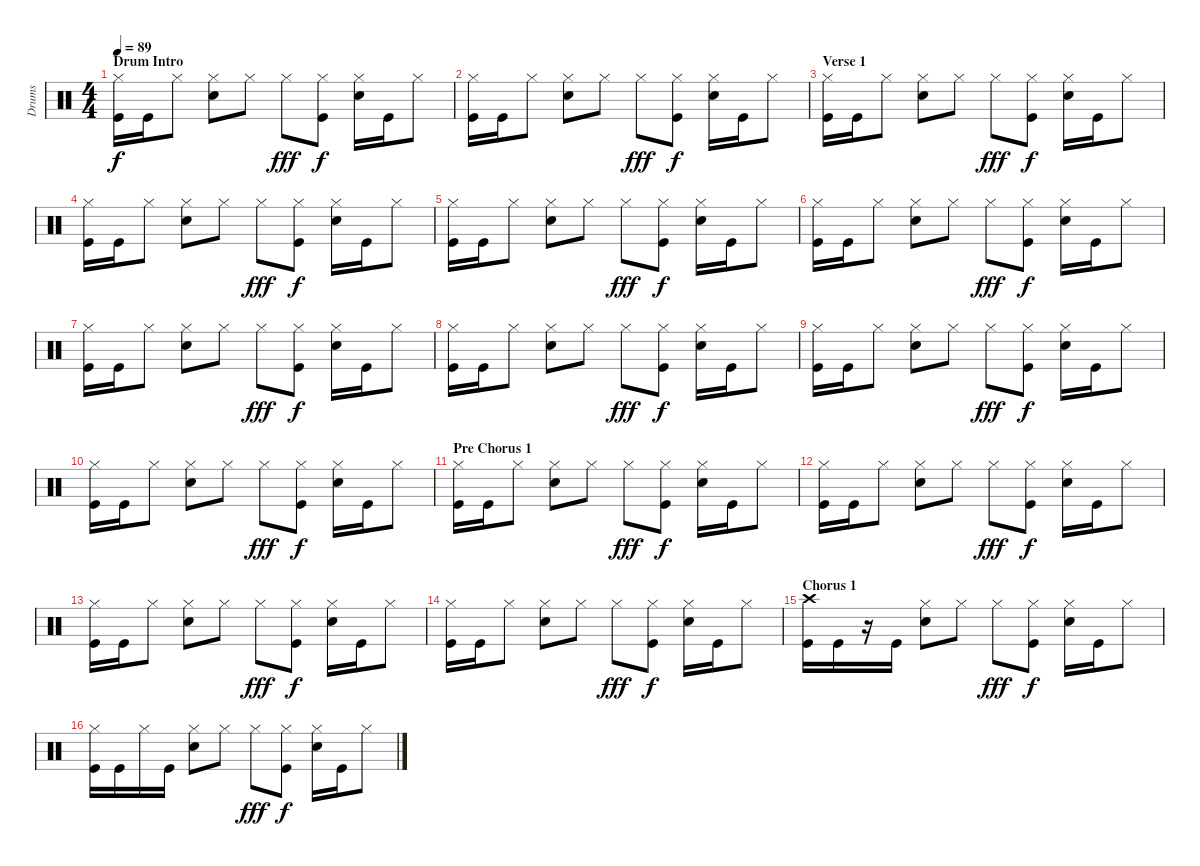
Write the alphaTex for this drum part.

\track ("Drums" "Drums") {instrument percussion}
\staff {score}
\articulation defaults
\ts (4 4)
\section ("" "Drum Intro")
\tempo 89
\clef neutral
\ks c
("Hi-Hat (closed)" "Kick (hit)").16{dy f} "Kick (hit)".16 "Hi-Hat (closed)".8 ("Hi-Hat (closed)" "Snare (hit) 2").8 "Hi-Hat (closed)".8 "Hi-Hat (closed)".8{dy fff} ("Hi-Hat (closed)" "Kick (hit)").8{dy f} ("Hi-Hat (closed)" "Snare (hit) 2").16 "Kick (hit)".16 "Hi-Hat (closed)".8 |
("Hi-Hat (closed)" "Kick (hit)").16 "Kick (hit)".16 "Hi-Hat (closed)".8 ("Hi-Hat (closed)" "Snare (hit) 2").8 "Hi-Hat (closed)".8 "Hi-Hat (closed)".8{dy fff} ("Hi-Hat (closed)" "Kick (hit)").8{dy f} ("Hi-Hat (closed)" "Snare (hit) 2").16 "Kick (hit)".16 "Hi-Hat (closed)".8 |
\section ("" "Verse 1")
("Hi-Hat (closed)" "Kick (hit)").16 "Kick (hit)".16 "Hi-Hat (closed)".8 ("Hi-Hat (closed)" "Snare (hit) 2").8 "Hi-Hat (closed)".8 "Hi-Hat (closed)".8{dy fff} ("Hi-Hat (closed)" "Kick (hit)").8{dy f} ("Hi-Hat (closed)" "Snare (hit) 2").16 "Kick (hit)".16 "Hi-Hat (closed)".8 |
("Hi-Hat (closed)" "Kick (hit)").16 "Kick (hit)".16 "Hi-Hat (closed)".8 ("Hi-Hat (closed)" "Snare (hit) 2").8 "Hi-Hat (closed)".8 "Hi-Hat (closed)".8{dy fff} ("Hi-Hat (closed)" "Kick (hit)").8{dy f} ("Hi-Hat (closed)" "Snare (hit) 2").16 "Kick (hit)".16 "Hi-Hat (closed)".8 |
("Hi-Hat (closed)" "Kick (hit)").16 "Kick (hit)".16 "Hi-Hat (closed)".8 ("Hi-Hat (closed)" "Snare (hit) 2").8 "Hi-Hat (closed)".8 "Hi-Hat (closed)".8{dy fff} ("Hi-Hat (closed)" "Kick (hit)").8{dy f} ("Hi-Hat (closed)" "Snare (hit) 2").16 "Kick (hit)".16 "Hi-Hat (closed)".8 |
("Hi-Hat (closed)" "Kick (hit)").16 "Kick (hit)".16 "Hi-Hat (closed)".8 ("Hi-Hat (closed)" "Snare (hit) 2").8 "Hi-Hat (closed)".8 "Hi-Hat (closed)".8{dy fff} ("Hi-Hat (closed)" "Kick (hit)").8{dy f} ("Hi-Hat (closed)" "Snare (hit) 2").16 "Kick (hit)".16 "Hi-Hat (closed)".8 |
("Hi-Hat (closed)" "Kick (hit)").16 "Kick (hit)".16 "Hi-Hat (closed)".8 ("Hi-Hat (closed)" "Snare (hit) 2").8 "Hi-Hat (closed)".8 "Hi-Hat (closed)".8{dy fff} ("Hi-Hat (closed)" "Kick (hit)").8{dy f} ("Hi-Hat (closed)" "Snare (hit) 2").16 "Kick (hit)".16 "Hi-Hat (closed)".8 |
("Hi-Hat (closed)" "Kick (hit)").16 "Kick (hit)".16 "Hi-Hat (closed)".8 ("Hi-Hat (closed)" "Snare (hit) 2").8 "Hi-Hat (closed)".8 "Hi-Hat (closed)".8{dy fff} ("Hi-Hat (closed)" "Kick (hit)").8{dy f} ("Hi-Hat (closed)" "Snare (hit) 2").16 "Kick (hit)".16 "Hi-Hat (closed)".8 |
("Hi-Hat (closed)" "Kick (hit)").16 "Kick (hit)".16 "Hi-Hat (closed)".8 ("Hi-Hat (closed)" "Snare (hit) 2").8 "Hi-Hat (closed)".8 "Hi-Hat (closed)".8{dy fff} ("Hi-Hat (closed)" "Kick (hit)").8{dy f} ("Hi-Hat (closed)" "Snare (hit) 2").16 "Kick (hit)".16 "Hi-Hat (closed)".8 |
("Hi-Hat (closed)" "Kick (hit)").16 "Kick (hit)".16 "Hi-Hat (closed)".8 ("Hi-Hat (closed)" "Snare (hit) 2").8 "Hi-Hat (closed)".8 "Hi-Hat (closed)".8{dy fff} ("Hi-Hat (closed)" "Kick (hit)").8{dy f} ("Hi-Hat (closed)" "Snare (hit) 2").16 "Kick (hit)".16 "Hi-Hat (closed)".8 |
\section ("" "Pre Chorus 1")
("Hi-Hat (closed)" "Kick (hit)").16 "Kick (hit)".16 "Hi-Hat (closed)".8 ("Hi-Hat (closed)" "Snare (hit) 2").8 "Hi-Hat (closed)".8 "Hi-Hat (closed)".8{dy fff} ("Hi-Hat (closed)" "Kick (hit)").8{dy f} ("Hi-Hat (closed)" "Snare (hit) 2").16 "Kick (hit)".16 "Hi-Hat (closed)".8 |
("Hi-Hat (closed)" "Kick (hit)").16 "Kick (hit)".16 "Hi-Hat (closed)".8 ("Hi-Hat (closed)" "Snare (hit) 2").8 "Hi-Hat (closed)".8 "Hi-Hat (closed)".8{dy fff} ("Hi-Hat (closed)" "Kick (hit)").8{dy f} ("Hi-Hat (closed)" "Snare (hit) 2").16 "Kick (hit)".16 "Hi-Hat (closed)".8 |
("Hi-Hat (closed)" "Kick (hit)").16 "Kick (hit)".16 "Hi-Hat (closed)".8 ("Hi-Hat (closed)" "Snare (hit) 2").8 "Hi-Hat (closed)".8 "Hi-Hat (closed)".8{dy fff} ("Hi-Hat (closed)" "Kick (hit)").8{dy f} ("Hi-Hat (closed)" "Snare (hit) 2").16 "Kick (hit)".16 "Hi-Hat (closed)".8 |
("Hi-Hat (closed)" "Kick (hit)").16 "Kick (hit)".16 "Hi-Hat (closed)".8 ("Hi-Hat (closed)" "Snare (hit) 2").8 "Hi-Hat (closed)".8 "Hi-Hat (closed)".8{dy fff} ("Hi-Hat (closed)" "Kick (hit)").8{dy f} ("Hi-Hat (closed)" "Snare (hit) 2").16 "Kick (hit)".16 "Hi-Hat (closed)".8 |
\section ("" "Chorus 1")
("Crash high (hit)" "Kick (hit)").16 "Kick (hit)".16 r.16 "Kick (hit)".16 ("Hi-Hat (closed)" "Snare (hit) 2").8 "Hi-Hat (closed)".8 "Hi-Hat (closed)".8{dy fff} ("Hi-Hat (closed)" "Kick (hit)").8{dy f} ("Hi-Hat (closed)" "Snare (hit) 2").16 "Kick (hit)".16 "Hi-Hat (closed)".8 |
("Hi-Hat (closed)" "Kick (hit)").16 "Kick (hit)".16 "Hi-Hat (closed)".16 "Kick (hit)".16 ("Hi-Hat (closed)" "Snare (hit) 2").8 "Hi-Hat (closed)".8 "Hi-Hat (closed)".8{dy fff} ("Hi-Hat (closed)" "Kick (hit)").8{dy f} ("Hi-Hat (closed)" "Snare (hit) 2").16 "Kick (hit)".16 "Hi-Hat (closed)".8
